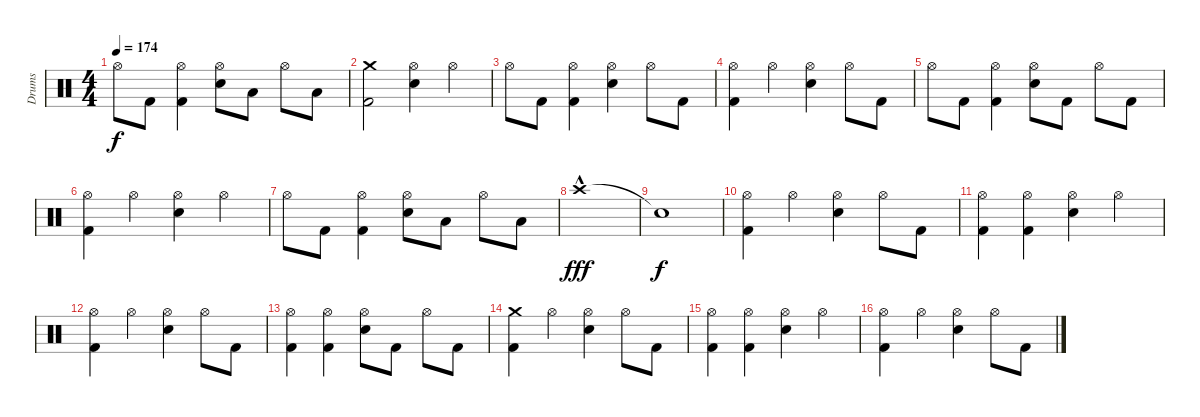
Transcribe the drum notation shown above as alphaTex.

\track ("Drums" "Drums") {instrument percussion}
\staff {score}
\articulation defaults
\ts (4 4)
\tempo 174
\clef neutral
\ks c "Hi-Hat (open)".8{dy f} "Kick (hit) 2".8
("Hi-Hat (open)" "Kick (hit) 2").4 ("Hi-Hat (open)" "Snare (hit) 2").8 "Low Tom (hit)".8 "Hi-Hat (open)".8 "Low Floor Tom (hit)".8 |
("Crash medium (hit)" "Kick (hit) 2").2 ("Hi-Hat (open)" "Snare (hit) 2").4 "Hi-Hat (open)".4 |
"Hi-Hat (open)".8 "Kick (hit) 2".8 ("Hi-Hat (open)" "Kick (hit) 2").4 ("Hi-Hat (open)" "Snare (hit) 2").4 "Hi-Hat (open)".8 "Kick (hit) 2".8 |
("Hi-Hat (open)" "Kick (hit) 2").4 "Hi-Hat (open)".4 ("Hi-Hat (open)" "Snare (hit) 2").4 "Hi-Hat (open)".8 "Kick (hit) 2".8 |
"Hi-Hat (open)".8 "Kick (hit) 2".8 ("Hi-Hat (open)" "Kick (hit) 2").4 ("Hi-Hat (open)" "Snare (hit) 2").8 "Kick (hit) 2".8 "Hi-Hat (open)".8 "Kick (hit) 2".8 |
("Hi-Hat (open)" "Kick (hit) 2").4 "Hi-Hat (open)".4 ("Hi-Hat (open)" "Snare (hit) 2").4 "Hi-Hat (open)".4 |
"Hi-Hat (open)".8 "Kick (hit) 2".8 ("Hi-Hat (open)" "Kick (hit) 2").4 ("Hi-Hat (open)" "Snare (hit) 2").8 "Low Tom (hit)".8 "Hi-Hat (open)".8 "Low Floor Tom (hit)".8 |
"Crash high (hit)"{hac}.1{dy fff} |
"Snare (hit)"{t}.1{dy f} |
("Hi-Hat (open)" "Kick (hit) 2").4 "Hi-Hat (open)".4 ("Hi-Hat (open)" "Snare (hit) 2").4 "Hi-Hat (open)".8 "Kick (hit) 2".8 |
("Hi-Hat (open)" "Kick (hit) 2").4 ("Hi-Hat (open)" "Kick (hit) 2").4 ("Hi-Hat (open)" "Snare (hit) 2").4 "Hi-Hat (open)".4 |
("Hi-Hat (open)" "Kick (hit) 2").4 "Hi-Hat (open)".4 ("Hi-Hat (open)" "Snare (hit) 2").4 "Hi-Hat (open)".8 "Kick (hit) 2".8 |
("Hi-Hat (open)" "Kick (hit) 2").4 ("Hi-Hat (open)" "Kick (hit) 2").4 ("Hi-Hat (open)" "Snare (hit) 2").8 "Kick (hit) 2".8 "Hi-Hat (open)".8 "Kick (hit) 2".8 |
("Crash medium (hit)" "Kick (hit) 2").4 "Hi-Hat (open)".4 ("Hi-Hat (open)" "Snare (hit) 2").4 "Hi-Hat (open)".8 "Kick (hit) 2".8 |
("Hi-Hat (open)" "Kick (hit) 2").4 ("Hi-Hat (open)" "Kick (hit) 2").4 ("Hi-Hat (open)" "Snare (hit) 2").4 "Hi-Hat (open)".4 |
("Hi-Hat (open)" "Kick (hit) 2").4 "Hi-Hat (open)".4 ("Hi-Hat (open)" "Snare (hit) 2").4 "Hi-Hat (open)".8 "Kick (hit) 2".8
